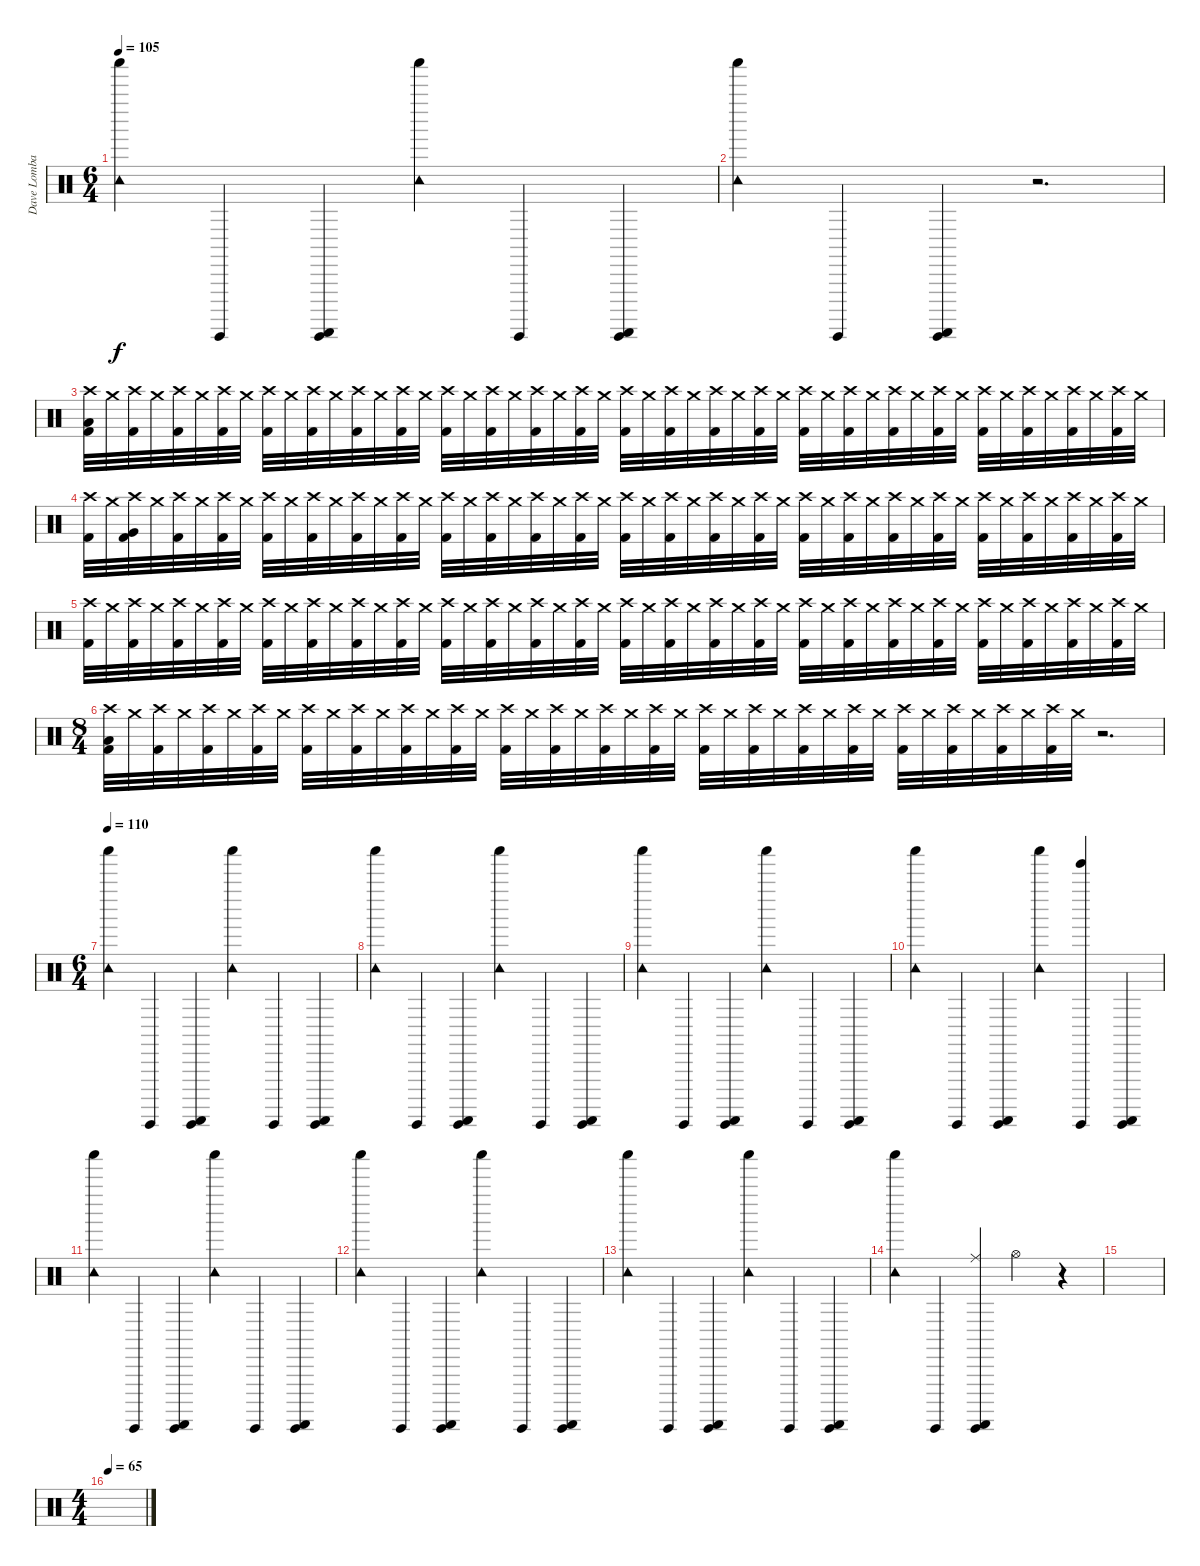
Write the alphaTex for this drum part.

\track ("Dave Lombardo" "Dave Lomba") {instrument percussion}
\staff {score}
\articulation defaults
\ts (6 4)
\tempo 105
\clef neutral
\ks c
("Shaker (hit)" "Tambourine (hit)").4{dy f} "Guiro (hit)".4 ("Guiro (hit)" "Guiro (scrap-return)").4 ("Shaker (hit)" "Tambourine (hit)").4 "Guiro (hit)".4 ("Guiro (hit)" "Guiro (scrap-return)").4 |
("Shaker (hit)" "Tambourine (hit)").4 "Guiro (hit)".4 ("Guiro (hit)" "Guiro (scrap-return)").4 r.2{d} |
("Crash high (hit)" "Low Tom (hit)" "Kick (hit) 2").32 "Crash medium (hit)".32 ("Crash high (hit)" "Kick (hit) 2").32 "Crash medium (hit)".32 ("Crash high (hit)" "Kick (hit) 2").32 "Crash medium (hit)".32 ("Crash high (hit)" "Kick (hit) 2").32 "Crash medium (hit)".32 ("Crash high (hit)" "Kick (hit) 2").32 "Crash medium (hit)".32 ("Crash high (hit)" "Kick (hit) 2").32 "Crash medium (hit)".32 ("Crash high (hit)" "Kick (hit) 2").32 "Crash medium (hit)".32 ("Crash high (hit)" "Kick (hit) 2").32 "Crash medium (hit)".32 ("Crash high (hit)" "Kick (hit) 2").32 "Crash medium (hit)".32 ("Crash high (hit)" "Kick (hit) 2").32 "Crash medium (hit)".32 ("Crash high (hit)" "Kick (hit) 2").32 "Crash medium (hit)".32 ("Crash high (hit)" "Kick (hit) 2").32 "Crash medium (hit)".32 ("Crash high (hit)" "Kick (hit) 2").32 "Crash medium (hit)".32 ("Crash high (hit)" "Kick (hit) 2").32 "Crash medium (hit)".32 ("Crash high (hit)" "Kick (hit) 2").32 "Crash medium (hit)".32 ("Crash high (hit)" "Kick (hit) 2").32 "Crash medium (hit)".32 ("Crash high (hit)" "Kick (hit) 2").32 "Crash medium (hit)".32 ("Crash high (hit)" "Kick (hit) 2").32 "Crash medium (hit)".32 ("Crash high (hit)" "Kick (hit) 2").32 "Crash medium (hit)".32 ("Crash high (hit)" "Kick (hit) 2").32 "Crash medium (hit)".32 ("Crash high (hit)" "Kick (hit) 2").32 "Crash medium (hit)".32 ("Crash high (hit)" "Kick (hit) 2").32 "Crash medium (hit)".32 ("Crash high (hit)" "Kick (hit) 2").32 "Crash medium (hit)".32 ("Crash high (hit)" "Kick (hit) 2").32 "Crash medium (hit)".32 |
("Crash high (hit)" "Kick (hit) 2").32 "Crash medium (hit)".32 ("Crash high (hit)" "Very Low Tom (hit)" "Kick (hit) 2").32 "Crash medium (hit)".32 ("Crash high (hit)" "Kick (hit) 2").32 "Crash medium (hit)".32 ("Crash high (hit)" "Kick (hit) 2").32 "Crash medium (hit)".32 ("Crash high (hit)" "Kick (hit) 2").32 "Crash medium (hit)".32 ("Crash high (hit)" "Kick (hit) 2").32 "Crash medium (hit)".32 ("Crash high (hit)" "Kick (hit) 2").32 "Crash medium (hit)".32 ("Crash high (hit)" "Kick (hit) 2").32 "Crash medium (hit)".32 ("Crash high (hit)" "Kick (hit) 2").32 "Crash medium (hit)".32 ("Crash high (hit)" "Kick (hit) 2").32 "Crash medium (hit)".32 ("Crash high (hit)" "Kick (hit) 2").32 "Crash medium (hit)".32 ("Crash high (hit)" "Kick (hit) 2").32 "Crash medium (hit)".32 ("Crash high (hit)" "Kick (hit) 2").32 "Crash medium (hit)".32 ("Crash high (hit)" "Kick (hit) 2").32 "Crash medium (hit)".32 ("Crash high (hit)" "Kick (hit) 2").32 "Crash medium (hit)".32 ("Crash high (hit)" "Kick (hit) 2").32 "Crash medium (hit)".32 ("Crash high (hit)" "Kick (hit) 2").32 "Crash medium (hit)".32 ("Crash high (hit)" "Kick (hit) 2").32 "Crash medium (hit)".32 ("Crash high (hit)" "Kick (hit) 2").32 "Crash medium (hit)".32 ("Crash high (hit)" "Kick (hit) 2").32 "Crash medium (hit)".32 ("Crash high (hit)" "Kick (hit) 2").32 "Crash medium (hit)".32 ("Crash high (hit)" "Kick (hit) 2").32 "Crash medium (hit)".32 ("Crash high (hit)" "Kick (hit) 2").32 "Crash medium (hit)".32 ("Crash high (hit)" "Kick (hit) 2").32 "Crash medium (hit)".32 |
("Crash high (hit)" "Kick (hit) 2").32 "Crash medium (hit)".32 ("Crash high (hit)" "Kick (hit) 2").32 "Crash medium (hit)".32 ("Crash high (hit)" "Kick (hit) 2").32 "Crash medium (hit)".32 ("Crash high (hit)" "Kick (hit) 2").32 "Crash medium (hit)".32 ("Crash high (hit)" "Kick (hit) 2").32 "Crash medium (hit)".32 ("Crash high (hit)" "Kick (hit) 2").32 "Crash medium (hit)".32 ("Crash high (hit)" "Kick (hit) 2").32 "Crash medium (hit)".32 ("Crash high (hit)" "Kick (hit) 2").32 "Crash medium (hit)".32 ("Crash high (hit)" "Kick (hit) 2").32 "Crash medium (hit)".32 ("Crash high (hit)" "Kick (hit) 2").32 "Crash medium (hit)".32 ("Crash high (hit)" "Kick (hit) 2").32 "Crash medium (hit)".32 ("Crash high (hit)" "Kick (hit) 2").32 "Crash medium (hit)".32 ("Crash high (hit)" "Kick (hit) 2").32 "Crash medium (hit)".32 ("Crash high (hit)" "Kick (hit) 2").32 "Crash medium (hit)".32 ("Crash high (hit)" "Kick (hit) 2").32 "Crash medium (hit)".32 ("Crash high (hit)" "Kick (hit) 2").32 "Crash medium (hit)".32 ("Crash high (hit)" "Kick (hit) 2").32 "Crash medium (hit)".32 ("Crash high (hit)" "Kick (hit) 2").32 "Crash medium (hit)".32 ("Crash high (hit)" "Kick (hit) 2").32 "Crash medium (hit)".32 ("Crash high (hit)" "Kick (hit) 2").32 "Crash medium (hit)".32 ("Crash high (hit)" "Kick (hit) 2").32 "Crash medium (hit)".32 ("Crash high (hit)" "Kick (hit) 2").32 "Crash medium (hit)".32 ("Crash high (hit)" "Kick (hit) 2").32 "Crash medium (hit)".32 ("Crash high (hit)" "Kick (hit) 2").32 "Crash medium (hit)".32 |
\ts (8 4)
("Crash high (hit)" "Low Floor Tom (hit)" "Kick (hit) 2").32 "Crash medium (hit)".32 ("Crash high (hit)" "Kick (hit) 2").32 "Crash medium (hit)".32 ("Crash high (hit)" "Kick (hit) 2").32 "Crash medium (hit)".32 ("Crash high (hit)" "Kick (hit) 2").32 "Crash medium (hit)".32 ("Crash high (hit)" "Kick (hit) 2").32 "Crash medium (hit)".32 ("Crash high (hit)" "Kick (hit) 2").32 "Crash medium (hit)".32 ("Crash high (hit)" "Kick (hit) 2").32 "Crash medium (hit)".32 ("Crash high (hit)" "Kick (hit) 2").32 "Crash medium (hit)".32 ("Crash high (hit)" "Kick (hit) 2").32 "Crash medium (hit)".32 ("Crash high (hit)" "Kick (hit) 2").32 "Crash medium (hit)".32 ("Crash high (hit)" "Kick (hit) 2").32 "Crash medium (hit)".32 ("Crash high (hit)" "Kick (hit) 2").32 "Crash medium (hit)".32 ("Crash high (hit)" "Kick (hit) 2").32 "Crash medium (hit)".32 ("Crash high (hit)" "Kick (hit) 2").32 "Crash medium (hit)".32 ("Crash high (hit)" "Kick (hit) 2").32 "Crash medium (hit)".32 ("Crash high (hit)" "Kick (hit) 2").32 "Crash medium (hit)".32 ("Crash high (hit)" "Kick (hit) 2").32 "Crash medium (hit)".32 ("Crash high (hit)" "Kick (hit) 2").32 "Crash medium (hit)".32 ("Crash high (hit)" "Kick (hit) 2").32 "Crash medium (hit)".32 ("Crash high (hit)" "Kick (hit) 2").32 "Crash medium (hit)".32 r.2{d} |
\ts (6 4)
\tempo 110
("Shaker (hit)" "Tambourine (hit)").4 "Guiro (hit)".4 ("Guiro (hit)" "Guiro (scrap-return)").4 ("Shaker (hit)" "Tambourine (hit)").4 "Guiro (hit)".4 ("Guiro (hit)" "Guiro (scrap-return)").4 |
("Shaker (hit)" "Tambourine (hit)").4 "Guiro (hit)".4 ("Guiro (hit)" "Guiro (scrap-return)").4 ("Shaker (hit)" "Tambourine (hit)").4 "Guiro (hit)".4 ("Guiro (hit)" "Guiro (scrap-return)").4 |
("Shaker (hit)" "Tambourine (hit)").4 "Guiro (hit)".4 ("Guiro (hit)" "Guiro (scrap-return)").4 ("Shaker (hit)" "Tambourine (hit)").4 "Guiro (hit)".4 ("Guiro (hit)" "Guiro (scrap-return)").4 |
("Shaker (hit)" "Tambourine (hit)").4 "Guiro (hit)".4 ("Guiro (hit)" "Guiro (scrap-return)").4 ("Shaker (hit)" "Tambourine (hit)").4 ("Guiro (hit)" "Tinkle Bell (hit)").4 ("Guiro (hit)" "Guiro (scrap-return)").4 |
("Shaker (hit)" "Tambourine (hit)").4 "Guiro (hit)".4 ("Guiro (hit)" "Guiro (scrap-return)").4 ("Shaker (hit)" "Tambourine (hit)").4 "Guiro (hit)".4 ("Guiro (hit)" "Guiro (scrap-return)").4 |
("Shaker (hit)" "Tambourine (hit)").4 "Guiro (hit)".4 ("Guiro (hit)" "Guiro (scrap-return)").4 ("Shaker (hit)" "Tambourine (hit)").4 "Guiro (hit)".4 ("Guiro (hit)" "Guiro (scrap-return)").4 |
("Shaker (hit)" "Tambourine (hit)").4 "Guiro (hit)".4 ("Guiro (hit)" "Guiro (scrap-return)").4 ("Shaker (hit)" "Tambourine (hit)").4 "Guiro (hit)".4 ("Guiro (hit)" "Guiro (scrap-return)").4 |
("Shaker (hit)" "Tambourine (hit)").4 "Guiro (hit)".4 ("Guiro (hit)" "Guiro (scrap-return)" "Ride (middle)").4 "Hi-Hat (open)".2 r.4 |
|
\ts (4 4)
\tempo 65
